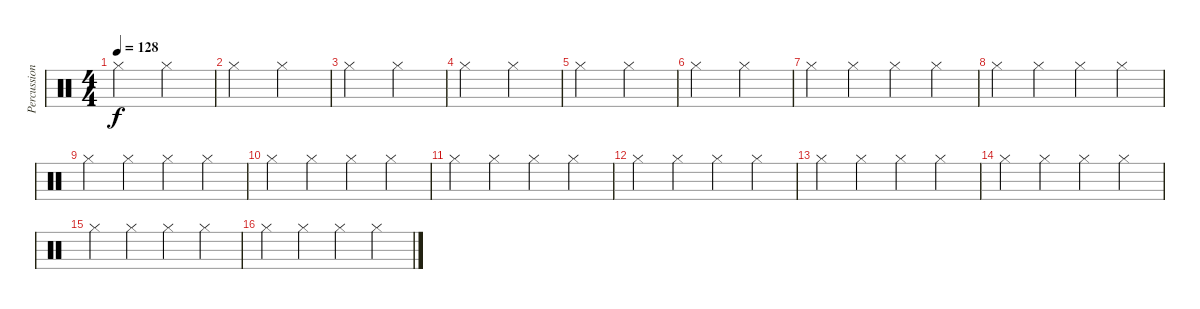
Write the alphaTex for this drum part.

\track ("Percussions" "Percussion") {instrument percussion}
\staff {score}
\articulation defaults
\ts (4 4)
\tempo 128
\clef neutral
\ks c "Hi-Hat (closed)".2{dy f} "Hi-Hat (closed)".2
|
"Hi-Hat (closed)".2 "Hi-Hat (closed)".2 |
"Hi-Hat (closed)".2 "Hi-Hat (closed)".2 |
"Hi-Hat (closed)".2 "Hi-Hat (closed)".2 |
"Hi-Hat (closed)".2 "Hi-Hat (closed)".2 |
"Hi-Hat (closed)".2 "Hi-Hat (closed)".2 |
"Hi-Hat (closed)".4 "Hi-Hat (closed)".4 "Hi-Hat (closed)".4 "Hi-Hat (closed)".4 |
"Hi-Hat (closed)".4 "Hi-Hat (closed)".4 "Hi-Hat (closed)".4 "Hi-Hat (closed)".4 |
"Hi-Hat (closed)".4 "Hi-Hat (closed)".4 "Hi-Hat (closed)".4 "Hi-Hat (closed)".4 |
"Hi-Hat (closed)".4 "Hi-Hat (closed)".4 "Hi-Hat (closed)".4 "Hi-Hat (closed)".4 |
"Hi-Hat (closed)".4 "Hi-Hat (closed)".4 "Hi-Hat (closed)".4 "Hi-Hat (closed)".4 |
"Hi-Hat (closed)".4 "Hi-Hat (closed)".4 "Hi-Hat (closed)".4 "Hi-Hat (closed)".4 |
"Hi-Hat (closed)".4 "Hi-Hat (closed)".4 "Hi-Hat (closed)".4 "Hi-Hat (closed)".4 |
"Hi-Hat (closed)".4 "Hi-Hat (closed)".4 "Hi-Hat (closed)".4 "Hi-Hat (closed)".4 |
"Hi-Hat (closed)".4 "Hi-Hat (closed)".4 "Hi-Hat (closed)".4 "Hi-Hat (closed)".4 |
"Hi-Hat (closed)".4 "Hi-Hat (closed)".4 "Hi-Hat (closed)".4 "Hi-Hat (closed)".4
